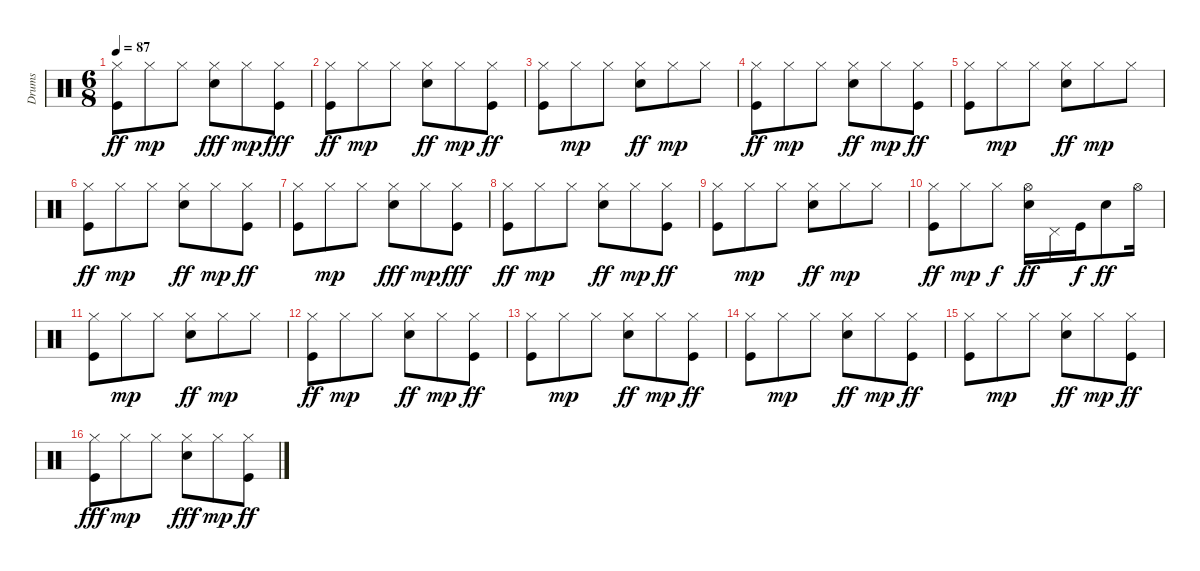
\track ("Drums" "Drums") {instrument percussion}
\staff {score}
\articulation defaults
\ts (6 8)
\tempo 87
\clef neutral
\ks c
("Hi-Hat (closed)" "Kick (hit)").8{dy ff} "Hi-Hat (closed)".8{dy mp} "Hi-Hat (closed)".8 ("Hi-Hat (closed)" "Snare (hit) 2").8{dy fff} "Hi-Hat (closed)".8{dy mp} ("Hi-Hat (closed)" "Kick (hit)").8{dy fff} |
("Hi-Hat (closed)" "Kick (hit)").8{dy ff} "Hi-Hat (closed)".8{dy mp} "Hi-Hat (closed)".8 ("Hi-Hat (closed)" "Snare (hit) 2").8{dy ff} "Hi-Hat (closed)".8{dy mp} ("Hi-Hat (closed)" "Kick (hit)").8{dy ff} |
("Hi-Hat (closed)" "Kick (hit)").8 "Hi-Hat (closed)".8{dy mp} "Hi-Hat (closed)".8 ("Hi-Hat (closed)" "Snare (hit) 2").8{dy ff} "Hi-Hat (closed)".8{dy mp} "Hi-Hat (closed)".8 |
("Hi-Hat (closed)" "Kick (hit)").8{dy ff} "Hi-Hat (closed)".8{dy mp} "Hi-Hat (closed)".8 ("Hi-Hat (closed)" "Snare (hit) 2").8{dy ff} "Hi-Hat (closed)".8{dy mp} ("Hi-Hat (closed)" "Kick (hit)").8{dy ff} |
("Hi-Hat (closed)" "Kick (hit)").8 "Hi-Hat (closed)".8{dy mp} "Hi-Hat (closed)".8 ("Hi-Hat (closed)" "Snare (hit) 2").8{dy ff} "Hi-Hat (closed)".8{dy mp} "Hi-Hat (closed)".8 |
("Hi-Hat (closed)" "Kick (hit)").8{dy ff} "Hi-Hat (closed)".8{dy mp} "Hi-Hat (closed)".8 ("Hi-Hat (closed)" "Snare (hit) 2").8{dy ff} "Hi-Hat (closed)".8{dy mp} ("Hi-Hat (closed)" "Kick (hit)").8{dy ff} |
("Hi-Hat (closed)" "Kick (hit)").8 "Hi-Hat (closed)".8{dy mp} "Hi-Hat (closed)".8 ("Hi-Hat (closed)" "Snare (hit) 2").8{dy fff} "Hi-Hat (closed)".8{dy mp} ("Hi-Hat (closed)" "Kick (hit)").8{dy fff} |
("Hi-Hat (closed)" "Kick (hit)").8{dy ff} "Hi-Hat (closed)".8{dy mp} "Hi-Hat (closed)".8 ("Hi-Hat (closed)" "Snare (hit) 2").8{dy ff} "Hi-Hat (closed)".8{dy mp} ("Hi-Hat (closed)" "Kick (hit)").8{dy ff} |
("Hi-Hat (closed)" "Kick (hit)").8 "Hi-Hat (closed)".8{dy mp} "Hi-Hat (closed)".8 ("Hi-Hat (closed)" "Snare (hit) 2").8{dy ff} "Hi-Hat (closed)".8{dy mp} "Hi-Hat (closed)".8 |
("Hi-Hat (closed)" "Kick (hit)").8{dy ff} "Hi-Hat (closed)".8{dy mp} "Hi-Hat (closed)".8{dy f} ("Hi-Hat (open)" "Snare (hit) 2").16{dy ff} "Pedal Hi-Hat (hit)".16 "Kick (hit)".16{dy f} "Snare (hit) 2".8{dy ff} "Hi-Hat (open)".16 |
("Hi-Hat (closed)" "Kick (hit)").8 "Hi-Hat (closed)".8{dy mp} "Hi-Hat (closed)".8 ("Hi-Hat (closed)" "Snare (hit) 2").8{dy ff} "Hi-Hat (closed)".8{dy mp} "Hi-Hat (closed)".8 |
("Hi-Hat (closed)" "Kick (hit)").8{dy ff} "Hi-Hat (closed)".8{dy mp} "Hi-Hat (closed)".8 ("Hi-Hat (closed)" "Snare (hit) 2").8{dy ff} "Hi-Hat (closed)".8{dy mp} ("Hi-Hat (closed)" "Kick (hit)").8{dy ff} |
("Hi-Hat (closed)" "Kick (hit)").8 "Hi-Hat (closed)".8{dy mp} "Hi-Hat (closed)".8 ("Hi-Hat (closed)" "Snare (hit) 2").8{dy ff} "Hi-Hat (closed)".8{dy mp} ("Hi-Hat (closed)" "Kick (hit)").8{dy ff} |
("Hi-Hat (closed)" "Kick (hit)").8 "Hi-Hat (closed)".8{dy mp} "Hi-Hat (closed)".8 ("Hi-Hat (closed)" "Snare (hit) 2").8{dy ff} "Hi-Hat (closed)".8{dy mp} ("Hi-Hat (closed)" "Kick (hit)").8{dy ff} |
("Hi-Hat (closed)" "Kick (hit)").8 "Hi-Hat (closed)".8{dy mp} "Hi-Hat (closed)".8 ("Hi-Hat (closed)" "Snare (hit) 2").8{dy ff} "Hi-Hat (closed)".8{dy mp} ("Hi-Hat (closed)" "Kick (hit)").8{dy ff} |
("Hi-Hat (closed)" "Kick (hit)").8{dy fff} "Hi-Hat (closed)".8{dy mp} "Hi-Hat (closed)".8 ("Hi-Hat (closed)" "Snare (hit) 2").8{dy fff} "Hi-Hat (closed)".8{dy mp} ("Hi-Hat (closed)" "Kick (hit)").8{dy ff}
